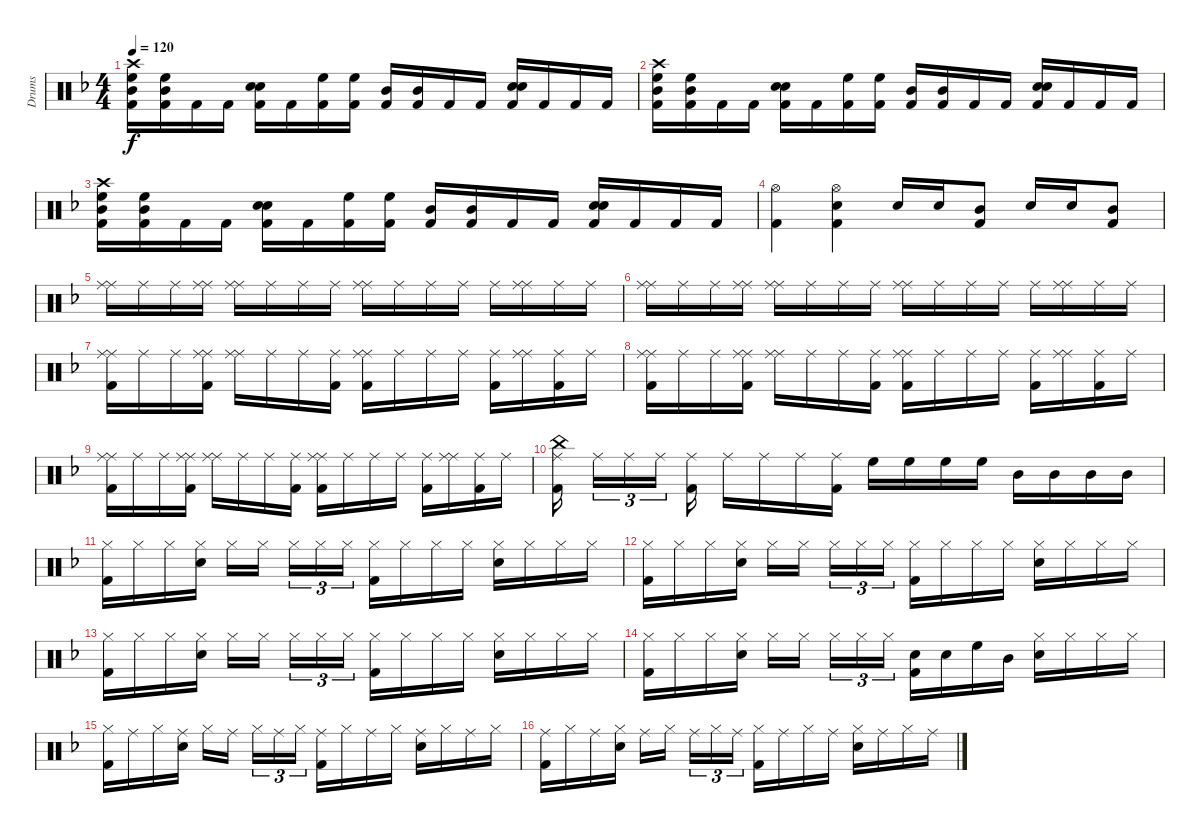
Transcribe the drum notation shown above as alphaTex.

\track ("Drums" "Drums") {instrument percussion}
\staff {score}
\articulation defaults
\ts (4 4)
\tempo 120
\clef neutral
\ks dminor
("Crash high (hit)" "High Floor Tom (hit)" "Mid Tom (hit)" "Kick (hit) 2").16{dy f} ("High Floor Tom (hit)" "Mid Tom (hit)" "Kick (hit) 2").16 "Kick (hit) 2".16 "Kick (hit) 2".16 ("Snare (hit) 2" "Snare (hit) 2" "Kick (hit) 2").16 "Kick (hit) 2".16 ("High Floor Tom (hit)" "Kick (hit) 2").16 ("High Floor Tom (hit)" "Kick (hit) 2").16 ("Mid Tom (hit)" "Kick (hit) 2").16 ("Mid Tom (hit)" "Kick (hit) 2").16 "Kick (hit) 2".16 "Kick (hit) 2".16 ("Snare (hit) 2" "Snare (hit) 2" "Kick (hit) 2").16 "Kick (hit) 2".16 "Kick (hit) 2".16 "Kick (hit) 2".16 |
("Crash high (hit)" "High Floor Tom (hit)" "Mid Tom (hit)" "Kick (hit) 2").16 ("High Floor Tom (hit)" "Mid Tom (hit)" "Kick (hit) 2").16 "Kick (hit) 2".16 "Kick (hit) 2".16 ("Snare (hit) 2" "Snare (hit) 2" "Kick (hit) 2").16 "Kick (hit) 2".16 ("High Floor Tom (hit)" "Kick (hit) 2").16 ("High Floor Tom (hit)" "Kick (hit) 2").16 ("Mid Tom (hit)" "Kick (hit) 2").16 ("Mid Tom (hit)" "Kick (hit) 2").16 "Kick (hit) 2".16 "Kick (hit) 2".16 ("Snare (hit) 2" "Snare (hit) 2" "Kick (hit) 2").16 "Kick (hit) 2".16 "Kick (hit) 2".16 "Kick (hit) 2".16 |
("Crash high (hit)" "High Floor Tom (hit)" "Mid Tom (hit)" "Kick (hit) 2").16 ("High Floor Tom (hit)" "Mid Tom (hit)" "Kick (hit) 2").16 "Kick (hit) 2".16 "Kick (hit) 2".16 ("Snare (hit) 2" "Snare (hit) 2" "Kick (hit) 2").16 "Kick (hit) 2".16 ("High Floor Tom (hit)" "Kick (hit) 2").16 ("High Floor Tom (hit)" "Kick (hit) 2").16 ("Mid Tom (hit)" "Kick (hit) 2").16 ("Mid Tom (hit)" "Kick (hit) 2").16 "Kick (hit) 2".16 "Kick (hit) 2".16 ("Snare (hit) 2" "Snare (hit) 2" "Kick (hit) 2").16 "Kick (hit) 2".16 "Kick (hit) 2".16 "Kick (hit) 2".16 |
("Hi-Hat (open)" "Kick (hit) 2").4 ("Hi-Hat (open)" "Snare (hit) 2" "Kick (hit) 2").4 "Snare (hit) 2".16 "Snare (hit) 2".16 ("Mid Tom (hit)" "Kick (hit) 2").8 "Snare (hit) 2".16 "Snare (hit) 2".16 ("Mid Tom (hit)" "Kick (hit) 2").8 |
("Ride (middle)" "Ride (middle)").16 "Ride (middle)".16 "Ride (middle)".16 ("Ride (middle)" "Ride (middle)").16 ("Ride (middle)" "Ride (middle)").16 "Ride (middle)".16 "Ride (middle)".16 "Ride (middle)".16 ("Ride (middle)" "Ride (middle)").16 "Ride (middle)".16 "Ride (middle)".16 "Ride (middle)".16 "Ride (middle)".16 ("Ride (middle)" "Ride (middle)").16 "Ride (middle)".16 "Ride (middle)".16 |
("Ride (middle)" "Ride (middle)").16 "Ride (middle)".16 "Ride (middle)".16 ("Ride (middle)" "Ride (middle)").16 ("Ride (middle)" "Ride (middle)").16 "Ride (middle)".16 "Ride (middle)".16 "Ride (middle)".16 ("Ride (middle)" "Ride (middle)").16 "Ride (middle)".16 "Ride (middle)".16 "Ride (middle)".16 "Ride (middle)".16 ("Ride (middle)" "Ride (middle)").16 "Ride (middle)".16 "Ride (middle)".16 |
("Ride (middle)" "Ride (middle)" "Kick (hit) 2").16 "Ride (middle)".16 "Ride (middle)".16 ("Ride (middle)" "Ride (middle)" "Kick (hit) 2").16 ("Ride (middle)" "Ride (middle)").16 "Ride (middle)".16 "Ride (middle)".16 ("Ride (middle)" "Kick (hit) 2").16 ("Ride (middle)" "Ride (middle)" "Kick (hit) 2").16 "Ride (middle)".16 "Ride (middle)".16 "Ride (middle)".16 ("Ride (middle)" "Kick (hit) 2").16 ("Ride (middle)" "Ride (middle)").16 ("Ride (middle)" "Kick (hit) 2").16 "Ride (middle)".16 |
("Ride (middle)" "Ride (middle)" "Kick (hit) 2").16 "Ride (middle)".16 "Ride (middle)".16 ("Ride (middle)" "Ride (middle)" "Kick (hit) 2").16 ("Ride (middle)" "Ride (middle)").16 "Ride (middle)".16 "Ride (middle)".16 ("Ride (middle)" "Kick (hit) 2").16 ("Ride (middle)" "Ride (middle)" "Kick (hit) 2").16 "Ride (middle)".16 "Ride (middle)".16 "Ride (middle)".16 ("Ride (middle)" "Kick (hit) 2").16 ("Ride (middle)" "Ride (middle)").16 ("Ride (middle)" "Kick (hit) 2").16 "Ride (middle)".16 |
("Ride (middle)" "Ride (middle)" "Kick (hit) 2").16 "Ride (middle)".16 "Ride (middle)".16 ("Ride (middle)" "Ride (middle)" "Kick (hit) 2").16 ("Ride (middle)" "Ride (middle)").16 "Ride (middle)".16 "Ride (middle)".16 ("Ride (middle)" "Kick (hit) 2").16 ("Ride (middle)" "Ride (middle)" "Kick (hit) 2").16 "Ride (middle)".16 "Ride (middle)".16 "Ride (middle)".16 ("Ride (middle)" "Kick (hit) 2").16 ("Ride (middle)" "Ride (middle)").16 ("Ride (middle)" "Kick (hit) 2").16 "Ride (middle)".16 |
("Ride (middle)" "China (hit)" "Kick (hit) 2").16 "Ride (middle)".16{tu (3 2)} "Ride (middle)".16{tu (3 2)} "Ride (middle)".16{tu (3 2)} ("Ride (middle)" "Kick (hit) 2").16 "Ride (middle)".16 "Ride (middle)".16 "Ride (middle)".16 ("Ride (middle)" "Kick (hit) 2").16 "High Floor Tom (hit)".16 "High Floor Tom (hit)".16 "High Floor Tom (hit)".16 "High Floor Tom (hit)".16 "Mid Tom (hit)".16 "Mid Tom (hit)".16 "Mid Tom (hit)".16 "Mid Tom (hit)".16 |
("Hi-Hat (closed)" "Kick (hit) 2").16 "Hi-Hat (closed)".16 "Hi-Hat (closed)".16 ("Hi-Hat (closed)" "Snare (hit) 2").16 "Hi-Hat (closed)".16 "Hi-Hat (closed)".16 "Hi-Hat (closed)".16{tu (3 2)} "Hi-Hat (closed)".16{tu (3 2)} "Hi-Hat (closed)".16{tu (3 2)} ("Hi-Hat (closed)" "Kick (hit) 2").16 "Hi-Hat (closed)".16 "Hi-Hat (closed)".16 "Hi-Hat (closed)".16 ("Hi-Hat (closed)" "Snare (hit) 2").16 "Hi-Hat (closed)".16 "Hi-Hat (closed)".16 "Hi-Hat (closed)".16 |
("Hi-Hat (closed)" "Kick (hit) 2").16 "Hi-Hat (closed)".16 "Hi-Hat (closed)".16 ("Hi-Hat (closed)" "Snare (hit) 2").16 "Hi-Hat (closed)".16 "Hi-Hat (closed)".16 "Hi-Hat (closed)".16{tu (3 2)} "Hi-Hat (closed)".16{tu (3 2)} "Hi-Hat (closed)".16{tu (3 2)} ("Hi-Hat (closed)" "Kick (hit) 2").16 "Hi-Hat (closed)".16 "Hi-Hat (closed)".16 "Hi-Hat (closed)".16 ("Hi-Hat (closed)" "Snare (hit) 2").16 "Hi-Hat (closed)".16 "Hi-Hat (closed)".16 "Hi-Hat (closed)".16 |
("Hi-Hat (closed)" "Kick (hit) 2").16 "Hi-Hat (closed)".16 "Hi-Hat (closed)".16 ("Hi-Hat (closed)" "Snare (hit) 2").16 "Hi-Hat (closed)".16 "Hi-Hat (closed)".16 "Hi-Hat (closed)".16{tu (3 2)} "Hi-Hat (closed)".16{tu (3 2)} "Hi-Hat (closed)".16{tu (3 2)} ("Hi-Hat (closed)" "Kick (hit) 2").16 "Hi-Hat (closed)".16 "Hi-Hat (closed)".16 "Hi-Hat (closed)".16 ("Hi-Hat (closed)" "Snare (hit) 2").16 "Hi-Hat (closed)".16 "Hi-Hat (closed)".16 "Hi-Hat (closed)".16 |
("Hi-Hat (closed)" "Kick (hit) 2").16 "Hi-Hat (closed)".16 "Hi-Hat (closed)".16 ("Hi-Hat (closed)" "Snare (hit) 2").16 "Hi-Hat (closed)".16 "Hi-Hat (closed)".16 "Hi-Hat (closed)".16{tu (3 2)} "Hi-Hat (closed)".16{tu (3 2)} "Hi-Hat (closed)".16{tu (3 2)} ("Snare (hit) 2" "Kick (hit) 2").16 "Snare (hit) 2".16 "High Floor Tom (hit)".16 "Mid Tom (hit)".16 ("Hi-Hat (closed)" "Snare (hit) 2").16 "Hi-Hat (closed)".16 "Hi-Hat (closed)".16 "Hi-Hat (closed)".16 |
("Hi-Hat (closed)" "Kick (hit) 2").16 "Ride (middle)".16 "Hi-Hat (closed)".16 ("Ride (middle)" "Snare (hit) 2").16 "Hi-Hat (closed)".16 "Ride (middle)".16 "Hi-Hat (closed)".16{tu (3 2)} "Ride (middle)".16{tu (3 2)} "Hi-Hat (closed)".16{tu (3 2)} ("Ride (middle)" "Kick (hit) 2").16 "Hi-Hat (closed)".16 "Ride (middle)".16 "Hi-Hat (closed)".16 ("Ride (middle)" "Snare (hit) 2").16 "Hi-Hat (closed)".16 "Ride (middle)".16 "Hi-Hat (closed)".16 |
("Ride (middle)" "Kick (hit) 2").16 "Hi-Hat (closed)".16 "Ride (middle)".16 ("Hi-Hat (closed)" "Snare (hit) 2").16 "Ride (middle)".16 "Hi-Hat (closed)".16 "Ride (middle)".16{tu (3 2)} "Hi-Hat (closed)".16{tu (3 2)} "Ride (middle)".16{tu (3 2)} ("Hi-Hat (closed)" "Kick (hit) 2").16 "Ride (middle)".16 "Hi-Hat (closed)".16 "Ride (middle)".16 ("Hi-Hat (closed)" "Snare (hit) 2").16 "Ride (middle)".16 "Hi-Hat (closed)".16 "Ride (middle)".16
